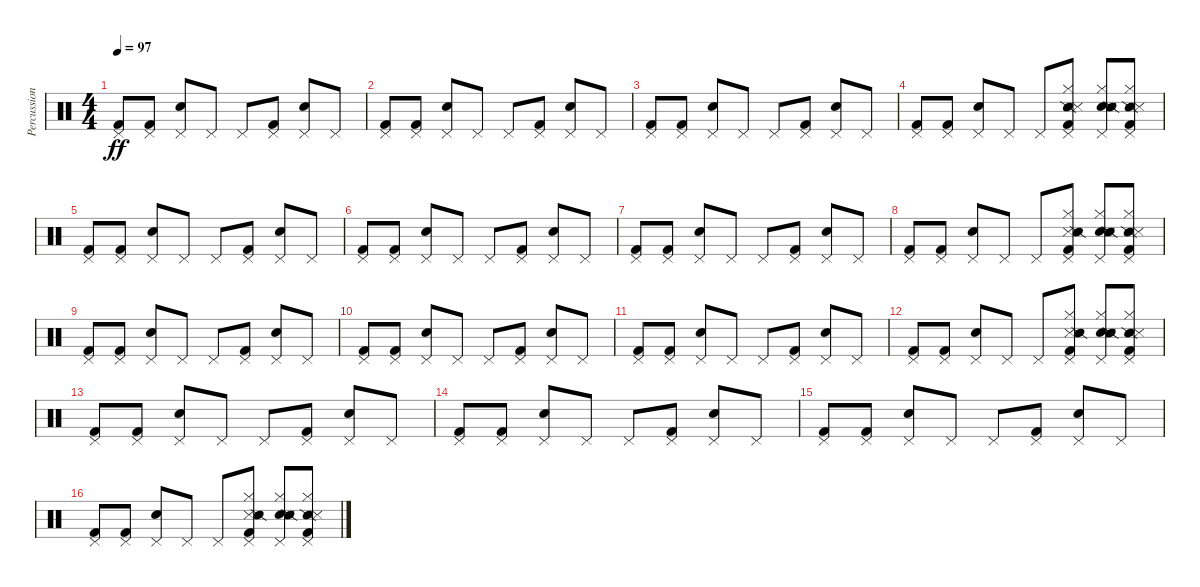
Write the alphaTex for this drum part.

\track ("Percussion" "Percussion") {instrument percussion}
\staff {score}
\articulation defaults
\ts (4 4)
\tempo 97
\clef neutral
\ks c
("Kick (hit) 2" "Pedal Hi-Hat (hit)").8{dy ff} ("Kick (hit) 2" "Pedal Hi-Hat (hit)").8 ("Electric Snare (hit)" "Pedal Hi-Hat (hit)").8 "Pedal Hi-Hat (hit)".8 "Pedal Hi-Hat (hit)".8 ("Kick (hit) 2" "Pedal Hi-Hat (hit)").8 ("Electric Snare (hit)" "Pedal Hi-Hat (hit)").8 "Pedal Hi-Hat (hit)".8 |
("Kick (hit) 2" "Pedal Hi-Hat (hit)").8 ("Kick (hit) 2" "Pedal Hi-Hat (hit)").8 ("Electric Snare (hit)" "Pedal Hi-Hat (hit)").8 "Pedal Hi-Hat (hit)".8 "Pedal Hi-Hat (hit)".8 ("Kick (hit) 2" "Pedal Hi-Hat (hit)").8 ("Electric Snare (hit)" "Pedal Hi-Hat (hit)").8 "Pedal Hi-Hat (hit)".8 |
("Kick (hit) 2" "Pedal Hi-Hat (hit)").8 ("Kick (hit) 2" "Pedal Hi-Hat (hit)").8 ("Electric Snare (hit)" "Pedal Hi-Hat (hit)").8 "Pedal Hi-Hat (hit)".8 "Pedal Hi-Hat (hit)".8 ("Kick (hit) 2" "Pedal Hi-Hat (hit)").8 ("Electric Snare (hit)" "Pedal Hi-Hat (hit)").8 "Pedal Hi-Hat (hit)".8 |
("Kick (hit) 2" "Pedal Hi-Hat (hit)").8 ("Kick (hit) 2" "Pedal Hi-Hat (hit)").8 ("Electric Snare (hit)" "Pedal Hi-Hat (hit)").8 "Pedal Hi-Hat (hit)".8 "Pedal Hi-Hat (hit)".8 ("Kick (hit) 2" "Pedal Hi-Hat (hit)" "Hi-Hat (closed)" "Snare (side stick) 2" "Snare (side stick) 3").8 ("Electric Snare (hit)" "Pedal Hi-Hat (hit)" "Hi-Hat (closed)" "Snare (side stick) 2" "Snare (side stick) 3").8 ("Pedal Hi-Hat (hit)" "Hi-Hat (closed)" "Snare (side stick) 2" "Kick (hit) 2" "Snare (side stick) 3").8 |
("Kick (hit) 2" "Pedal Hi-Hat (hit)").8 ("Kick (hit) 2" "Pedal Hi-Hat (hit)").8 ("Electric Snare (hit)" "Pedal Hi-Hat (hit)").8 "Pedal Hi-Hat (hit)".8 "Pedal Hi-Hat (hit)".8 ("Kick (hit) 2" "Pedal Hi-Hat (hit)").8 ("Electric Snare (hit)" "Pedal Hi-Hat (hit)").8 "Pedal Hi-Hat (hit)".8 |
("Pedal Hi-Hat (hit)" "Kick (hit) 2").8 ("Kick (hit) 2" "Pedal Hi-Hat (hit)").8 ("Electric Snare (hit)" "Pedal Hi-Hat (hit)").8 "Pedal Hi-Hat (hit)".8 "Pedal Hi-Hat (hit)".8 ("Kick (hit) 2" "Pedal Hi-Hat (hit)").8 ("Electric Snare (hit)" "Pedal Hi-Hat (hit)").8 "Pedal Hi-Hat (hit)".8 |
("Pedal Hi-Hat (hit)" "Kick (hit) 2").8 ("Kick (hit) 2" "Pedal Hi-Hat (hit)").8 ("Electric Snare (hit)" "Pedal Hi-Hat (hit)").8 "Pedal Hi-Hat (hit)".8 "Pedal Hi-Hat (hit)".8 ("Kick (hit) 2" "Pedal Hi-Hat (hit)").8 ("Electric Snare (hit)" "Pedal Hi-Hat (hit)").8 "Pedal Hi-Hat (hit)".8 |
("Pedal Hi-Hat (hit)" "Kick (hit) 2").8 ("Kick (hit) 2" "Pedal Hi-Hat (hit)").8 ("Electric Snare (hit)" "Pedal Hi-Hat (hit)").8 "Pedal Hi-Hat (hit)".8 "Pedal Hi-Hat (hit)".8 ("Snare (side stick) 3" "Snare (side stick) 2" "Hi-Hat (closed)" "Pedal Hi-Hat (hit)" "Kick (hit) 2").8 ("Electric Snare (hit)" "Pedal Hi-Hat (hit)" "Hi-Hat (closed)" "Snare (side stick) 2" "Snare (side stick) 3").8 ("Pedal Hi-Hat (hit)" "Hi-Hat (closed)" "Snare (side stick) 2" "Kick (hit) 2" "Snare (side stick) 3").8 |
("Pedal Hi-Hat (hit)" "Kick (hit) 2").8 ("Kick (hit) 2" "Pedal Hi-Hat (hit)").8 ("Electric Snare (hit)" "Pedal Hi-Hat (hit)").8 "Pedal Hi-Hat (hit)".8 "Pedal Hi-Hat (hit)".8 ("Kick (hit) 2" "Pedal Hi-Hat (hit)").8 ("Electric Snare (hit)" "Pedal Hi-Hat (hit)").8 "Pedal Hi-Hat (hit)".8 |
("Pedal Hi-Hat (hit)" "Kick (hit) 2").8 ("Kick (hit) 2" "Pedal Hi-Hat (hit)").8 ("Electric Snare (hit)" "Pedal Hi-Hat (hit)").8 "Pedal Hi-Hat (hit)".8 "Pedal Hi-Hat (hit)".8 ("Kick (hit) 2" "Pedal Hi-Hat (hit)").8 ("Electric Snare (hit)" "Pedal Hi-Hat (hit)").8 "Pedal Hi-Hat (hit)".8 |
("Pedal Hi-Hat (hit)" "Kick (hit) 2").8 ("Kick (hit) 2" "Pedal Hi-Hat (hit)").8 ("Electric Snare (hit)" "Pedal Hi-Hat (hit)").8 "Pedal Hi-Hat (hit)".8 "Pedal Hi-Hat (hit)".8 ("Kick (hit) 2" "Pedal Hi-Hat (hit)").8 ("Electric Snare (hit)" "Pedal Hi-Hat (hit)").8 "Pedal Hi-Hat (hit)".8 |
("Pedal Hi-Hat (hit)" "Kick (hit) 2").8 ("Kick (hit) 2" "Pedal Hi-Hat (hit)").8 ("Electric Snare (hit)" "Pedal Hi-Hat (hit)").8 "Pedal Hi-Hat (hit)".8 "Pedal Hi-Hat (hit)".8 ("Snare (side stick) 3" "Snare (side stick) 2" "Hi-Hat (closed)" "Pedal Hi-Hat (hit)" "Kick (hit) 2").8 ("Electric Snare (hit)" "Pedal Hi-Hat (hit)" "Hi-Hat (closed)" "Snare (side stick) 2" "Snare (side stick) 3").8 ("Pedal Hi-Hat (hit)" "Hi-Hat (closed)" "Snare (side stick) 2" "Kick (hit) 2" "Snare (side stick) 3").8 |
("Kick (hit) 2" "Pedal Hi-Hat (hit)").8 ("Kick (hit) 2" "Pedal Hi-Hat (hit)").8 ("Electric Snare (hit)" "Pedal Hi-Hat (hit)").8 "Pedal Hi-Hat (hit)".8 "Pedal Hi-Hat (hit)".8 ("Kick (hit) 2" "Pedal Hi-Hat (hit)").8 ("Electric Snare (hit)" "Pedal Hi-Hat (hit)").8 "Pedal Hi-Hat (hit)".8 |
("Pedal Hi-Hat (hit)" "Kick (hit) 2").8 ("Kick (hit) 2" "Pedal Hi-Hat (hit)").8 ("Electric Snare (hit)" "Pedal Hi-Hat (hit)").8 "Pedal Hi-Hat (hit)".8 "Pedal Hi-Hat (hit)".8 ("Kick (hit) 2" "Pedal Hi-Hat (hit)").8 ("Electric Snare (hit)" "Pedal Hi-Hat (hit)").8 "Pedal Hi-Hat (hit)".8 |
("Pedal Hi-Hat (hit)" "Kick (hit) 2").8 ("Kick (hit) 2" "Pedal Hi-Hat (hit)").8 ("Electric Snare (hit)" "Pedal Hi-Hat (hit)").8 "Pedal Hi-Hat (hit)".8 "Pedal Hi-Hat (hit)".8 ("Kick (hit) 2" "Pedal Hi-Hat (hit)").8 ("Electric Snare (hit)" "Pedal Hi-Hat (hit)").8 "Pedal Hi-Hat (hit)".8 |
("Pedal Hi-Hat (hit)" "Kick (hit) 2").8 ("Kick (hit) 2" "Pedal Hi-Hat (hit)").8 ("Electric Snare (hit)" "Pedal Hi-Hat (hit)").8 "Pedal Hi-Hat (hit)".8 "Pedal Hi-Hat (hit)".8 ("Snare (side stick) 3" "Snare (side stick) 2" "Hi-Hat (closed)" "Pedal Hi-Hat (hit)" "Kick (hit) 2").8 ("Electric Snare (hit)" "Pedal Hi-Hat (hit)" "Hi-Hat (closed)" "Snare (side stick) 2" "Snare (side stick) 3").8 ("Pedal Hi-Hat (hit)" "Hi-Hat (closed)" "Snare (side stick) 2" "Kick (hit) 2" "Snare (side stick) 3").8
